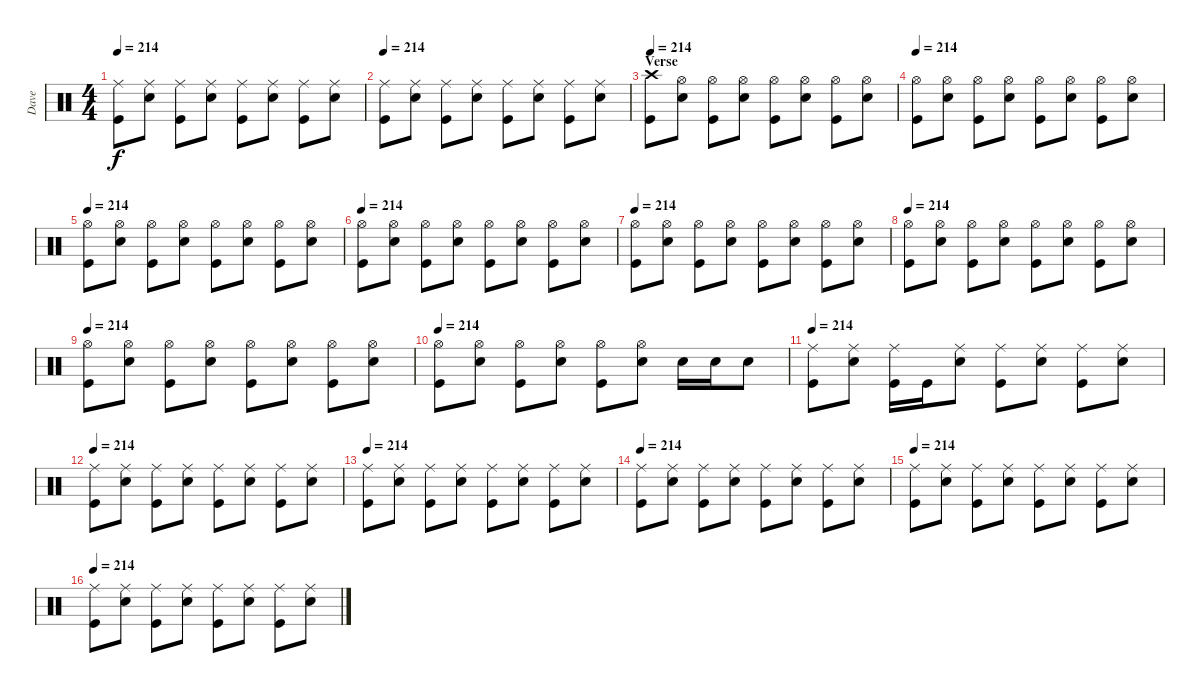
\track ("Dave" "Dave") {instrument percussion}
\staff {score}
\articulation defaults
\ts (4 4)
\tempo 214
\clef neutral
\ks c
("Ride (middle)" "Kick (hit)").8{dy f} ("Ride (middle)" "Snare (hit) 2").8 ("Ride (middle)" "Kick (hit)").8 ("Ride (middle)" "Snare (hit) 2").8 ("Ride (middle)" "Kick (hit)").8 ("Ride (middle)" "Snare (hit) 2").8 ("Ride (middle)" "Kick (hit)").8 ("Ride (middle)" "Snare (hit) 2").8 |
\tempo 214
("Ride (middle)" "Kick (hit)").8 ("Ride (middle)" "Snare (hit) 2").8 ("Ride (middle)" "Kick (hit)").8 ("Ride (middle)" "Snare (hit) 2").8 ("Ride (middle)" "Kick (hit)").8 ("Ride (middle)" "Snare (hit) 2").8 ("Ride (middle)" "Kick (hit)").8 ("Ride (middle)" "Snare (hit) 2").8 |
\section ("" "Verse")
\tempo 214
("Crash high (hit)" "Kick (hit)").8 ("Hi-Hat (open)" "Snare (hit) 2").8 ("Hi-Hat (open)" "Kick (hit)").8 ("Hi-Hat (open)" "Snare (hit) 2").8 ("Hi-Hat (open)" "Kick (hit)").8 ("Hi-Hat (open)" "Snare (hit) 2").8 ("Hi-Hat (open)" "Kick (hit)").8 ("Hi-Hat (open)" "Snare (hit) 2").8 |
\tempo 214
("Hi-Hat (open)" "Kick (hit)").8 ("Hi-Hat (open)" "Snare (hit) 2").8 ("Hi-Hat (open)" "Kick (hit)").8 ("Hi-Hat (open)" "Snare (hit) 2").8 ("Hi-Hat (open)" "Kick (hit)").8 ("Hi-Hat (open)" "Snare (hit) 2").8 ("Hi-Hat (open)" "Kick (hit)").8 ("Hi-Hat (open)" "Snare (hit) 2").8 |
\tempo 214
("Hi-Hat (open)" "Kick (hit)").8 ("Hi-Hat (open)" "Snare (hit) 2").8 ("Hi-Hat (open)" "Kick (hit)").8 ("Hi-Hat (open)" "Snare (hit) 2").8 ("Hi-Hat (open)" "Kick (hit)").8 ("Hi-Hat (open)" "Snare (hit) 2").8 ("Hi-Hat (open)" "Kick (hit)").8 ("Hi-Hat (open)" "Snare (hit) 2").8 |
\tempo 214
("Hi-Hat (open)" "Kick (hit)").8 ("Hi-Hat (open)" "Snare (hit) 2").8 ("Hi-Hat (open)" "Kick (hit)").8 ("Hi-Hat (open)" "Snare (hit) 2").8 ("Hi-Hat (open)" "Kick (hit)").8 ("Hi-Hat (open)" "Snare (hit) 2").8 ("Hi-Hat (open)" "Kick (hit)").8 ("Hi-Hat (open)" "Snare (hit) 2").8 |
\tempo 214
("Hi-Hat (open)" "Kick (hit)").8 ("Hi-Hat (open)" "Snare (hit) 2").8 ("Hi-Hat (open)" "Kick (hit)").8 ("Hi-Hat (open)" "Snare (hit) 2").8 ("Hi-Hat (open)" "Kick (hit)").8 ("Hi-Hat (open)" "Snare (hit) 2").8 ("Hi-Hat (open)" "Kick (hit)").8 ("Hi-Hat (open)" "Snare (hit) 2").8 |
\tempo 214
("Hi-Hat (open)" "Kick (hit)").8 ("Hi-Hat (open)" "Snare (hit) 2").8 ("Hi-Hat (open)" "Kick (hit)").8 ("Hi-Hat (open)" "Snare (hit) 2").8 ("Hi-Hat (open)" "Kick (hit)").8 ("Hi-Hat (open)" "Snare (hit) 2").8 ("Hi-Hat (open)" "Kick (hit)").8 ("Hi-Hat (open)" "Snare (hit) 2").8 |
\tempo 214
("Hi-Hat (open)" "Kick (hit)").8 ("Hi-Hat (open)" "Snare (hit) 2").8 ("Hi-Hat (open)" "Kick (hit)").8 ("Hi-Hat (open)" "Snare (hit) 2").8 ("Hi-Hat (open)" "Kick (hit)").8 ("Hi-Hat (open)" "Snare (hit) 2").8 ("Hi-Hat (open)" "Kick (hit)").8 ("Hi-Hat (open)" "Snare (hit) 2").8 |
\tempo 214
("Hi-Hat (open)" "Kick (hit)").8 ("Hi-Hat (open)" "Snare (hit) 2").8 ("Hi-Hat (open)" "Kick (hit)").8 ("Hi-Hat (open)" "Snare (hit) 2").8 ("Hi-Hat (open)" "Kick (hit)").8 ("Hi-Hat (open)" "Snare (hit) 2").8 "Snare (hit) 2".16 "Snare (hit) 2".16 "Snare (hit) 2".8 |
\tempo 214
("Ride (middle)" "Kick (hit)").8 ("Ride (middle)" "Snare (hit) 2").8 ("Ride (middle)" "Kick (hit)").16 "Kick (hit)".16 ("Ride (middle)" "Snare (hit) 2").8 ("Ride (middle)" "Kick (hit)").8 ("Ride (middle)" "Snare (hit) 2").8 ("Ride (middle)" "Kick (hit)").8 ("Ride (middle)" "Snare (hit) 2").8 |
\tempo 214
("Ride (middle)" "Kick (hit)").8 ("Ride (middle)" "Snare (hit) 2").8 ("Ride (middle)" "Kick (hit)").8 ("Ride (middle)" "Snare (hit) 2").8 ("Ride (middle)" "Kick (hit)").8 ("Ride (middle)" "Snare (hit) 2").8 ("Ride (middle)" "Kick (hit)").8 ("Ride (middle)" "Snare (hit) 2").8 |
\tempo 214
("Ride (middle)" "Kick (hit)").8 ("Ride (middle)" "Snare (hit) 2").8 ("Ride (middle)" "Kick (hit)").8 ("Ride (middle)" "Snare (hit) 2").8 ("Ride (middle)" "Kick (hit)").8 ("Ride (middle)" "Snare (hit) 2").8 ("Ride (middle)" "Kick (hit)").8 ("Ride (middle)" "Snare (hit) 2").8 |
\tempo 214
("Ride (middle)" "Kick (hit)").8 ("Ride (middle)" "Snare (hit) 2").8 ("Ride (middle)" "Kick (hit)").8 ("Ride (middle)" "Snare (hit) 2").8 ("Ride (middle)" "Kick (hit)").8 ("Ride (middle)" "Snare (hit) 2").8 ("Ride (middle)" "Kick (hit)").8 ("Ride (middle)" "Snare (hit) 2").8 |
\tempo 214
("Ride (middle)" "Kick (hit)").8 ("Ride (middle)" "Snare (hit) 2").8 ("Ride (middle)" "Kick (hit)").8 ("Ride (middle)" "Snare (hit) 2").8 ("Ride (middle)" "Kick (hit)").8 ("Ride (middle)" "Snare (hit) 2").8 ("Ride (middle)" "Kick (hit)").8 ("Ride (middle)" "Snare (hit) 2").8 |
\tempo 214
("Ride (middle)" "Kick (hit)").8 ("Ride (middle)" "Snare (hit) 2").8 ("Ride (middle)" "Kick (hit)").8 ("Ride (middle)" "Snare (hit) 2").8 ("Ride (middle)" "Kick (hit)").8 ("Ride (middle)" "Snare (hit) 2").8 ("Ride (middle)" "Kick (hit)").8 ("Ride (middle)" "Snare (hit) 2").8
